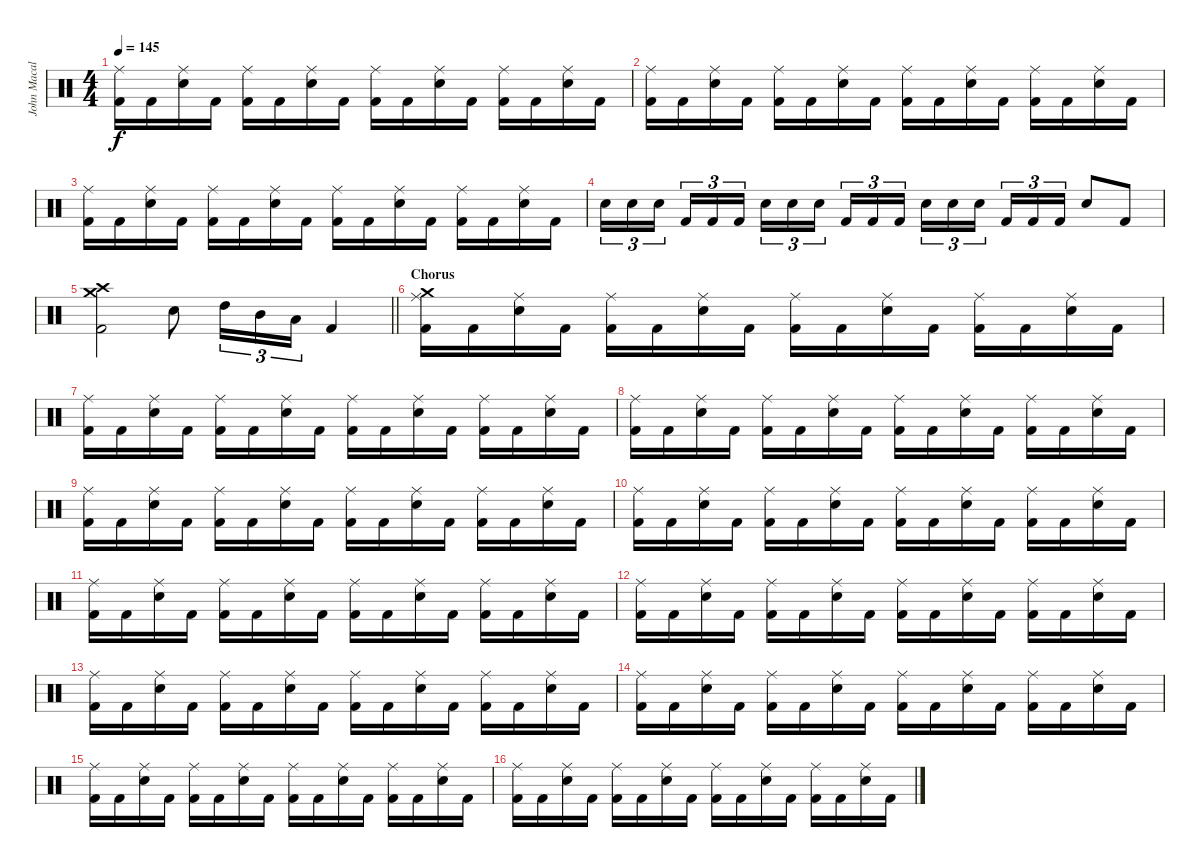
\track ("John Macaluso" "John Macal") {instrument percussion}
\staff {score}
\articulation defaults
\ts (4 4)
\tempo 145
\clef neutral
\ks c
("Ride (middle)" "Kick (hit) 2").16{dy f} "Kick (hit) 2".16 ("Ride (middle)" "Snare (hit) 2").16 "Kick (hit) 2".16 ("Ride (middle)" "Kick (hit) 2").16 "Kick (hit) 2".16 ("Ride (middle)" "Snare (hit) 2").16 "Kick (hit) 2".16 ("Ride (middle)" "Kick (hit) 2").16 "Kick (hit) 2".16 ("Ride (middle)" "Snare (hit) 2").16 "Kick (hit) 2".16 ("Ride (middle)" "Kick (hit) 2").16 "Kick (hit) 2".16 ("Ride (middle)" "Snare (hit) 2").16 "Kick (hit) 2".16 |
("Ride (middle)" "Kick (hit) 2").16 "Kick (hit) 2".16 ("Ride (middle)" "Snare (hit) 2").16 "Kick (hit) 2".16 ("Ride (middle)" "Kick (hit) 2").16 "Kick (hit) 2".16 ("Ride (middle)" "Snare (hit) 2").16 "Kick (hit) 2".16 ("Ride (middle)" "Kick (hit) 2").16 "Kick (hit) 2".16 ("Ride (middle)" "Snare (hit) 2").16 "Kick (hit) 2".16 ("Ride (middle)" "Kick (hit) 2").16 "Kick (hit) 2".16 ("Ride (middle)" "Snare (hit) 2").16 "Kick (hit) 2".16 |
("Ride (middle)" "Kick (hit) 2").16 "Kick (hit) 2".16 ("Ride (middle)" "Snare (hit) 2").16 "Kick (hit) 2".16 ("Ride (middle)" "Kick (hit) 2").16 "Kick (hit) 2".16 ("Ride (middle)" "Snare (hit) 2").16 "Kick (hit) 2".16 ("Ride (middle)" "Kick (hit) 2").16 "Kick (hit) 2".16 ("Ride (middle)" "Snare (hit) 2").16 "Kick (hit) 2".16 ("Ride (middle)" "Kick (hit) 2").16 "Kick (hit) 2".16 ("Ride (middle)" "Snare (hit) 2").16 "Kick (hit) 2".16 |
"Snare (hit) 2".16{tu (3 2)} "Snare (hit) 2".16{tu (3 2)} "Snare (hit) 2".16{tu (3 2) beam splitsecondary} "Kick (hit) 2".16{tu (3 2)} "Kick (hit) 2".16{tu (3 2)} "Kick (hit) 2".16{tu (3 2)} "Snare (hit) 2".16{tu (3 2)} "Snare (hit) 2".16{tu (3 2)} "Snare (hit) 2".16{tu (3 2) beam splitsecondary} "Kick (hit) 2".16{tu (3 2)} "Kick (hit) 2".16{tu (3 2)} "Kick (hit) 2".16{tu (3 2)} "Snare (hit) 2".16{tu (3 2)} "Snare (hit) 2".16{tu (3 2)} "Snare (hit) 2".16{tu (3 2) beam splitsecondary} "Kick (hit) 2".16{tu (3 2)} "Kick (hit) 2".16{tu (3 2)} "Kick (hit) 2".16{tu (3 2)} "Snare (hit) 2".8 "Kick (hit) 2".8 |
\barLineRight lightlight
("Crash high (hit)" "Crash medium (hit)" "Kick (hit) 2").2 "Snare (hit) 2".8 "High Tom (hit)".16{tu (3 2)} "Mid Tom (hit)".16{tu (3 2)} "Low Tom (hit)".16{tu (3 2)} "Kick (hit) 2".4 |
\section ("" "Chorus")
("Crash medium (hit)" "Ride (middle)" "Kick (hit) 2").16 "Kick (hit) 2".16 ("Ride (middle)" "Snare (hit) 2").16 "Kick (hit) 2".16 ("Ride (middle)" "Kick (hit) 2").16 "Kick (hit) 2".16 ("Ride (middle)" "Snare (hit) 2").16 "Kick (hit) 2".16 ("Ride (middle)" "Kick (hit) 2").16 "Kick (hit) 2".16 ("Ride (middle)" "Snare (hit) 2").16 "Kick (hit) 2".16 ("Ride (middle)" "Kick (hit) 2").16 "Kick (hit) 2".16 ("Ride (middle)" "Snare (hit) 2").16 "Kick (hit) 2".16 |
("Ride (middle)" "Kick (hit) 2").16 "Kick (hit) 2".16 ("Ride (middle)" "Snare (hit) 2").16 "Kick (hit) 2".16 ("Ride (middle)" "Kick (hit) 2").16 "Kick (hit) 2".16 ("Ride (middle)" "Snare (hit) 2").16 "Kick (hit) 2".16 ("Ride (middle)" "Kick (hit) 2").16 "Kick (hit) 2".16 ("Ride (middle)" "Snare (hit) 2").16 "Kick (hit) 2".16 ("Ride (middle)" "Kick (hit) 2").16 "Kick (hit) 2".16 ("Ride (middle)" "Snare (hit) 2").16 "Kick (hit) 2".16 |
("Ride (middle)" "Kick (hit) 2").16 "Kick (hit) 2".16 ("Ride (middle)" "Snare (hit) 2").16 "Kick (hit) 2".16 ("Ride (middle)" "Kick (hit) 2").16 "Kick (hit) 2".16 ("Ride (middle)" "Snare (hit) 2").16 "Kick (hit) 2".16 ("Ride (middle)" "Kick (hit) 2").16 "Kick (hit) 2".16 ("Ride (middle)" "Snare (hit) 2").16 "Kick (hit) 2".16 ("Ride (middle)" "Kick (hit) 2").16 "Kick (hit) 2".16 ("Ride (middle)" "Snare (hit) 2").16 "Kick (hit) 2".16 |
("Ride (middle)" "Kick (hit) 2").16 "Kick (hit) 2".16 ("Ride (middle)" "Snare (hit) 2").16 "Kick (hit) 2".16 ("Ride (middle)" "Kick (hit) 2").16 "Kick (hit) 2".16 ("Ride (middle)" "Snare (hit) 2").16 "Kick (hit) 2".16 ("Ride (middle)" "Kick (hit) 2").16 "Kick (hit) 2".16 ("Ride (middle)" "Snare (hit) 2").16 "Kick (hit) 2".16 ("Ride (middle)" "Kick (hit) 2").16 "Kick (hit) 2".16 ("Ride (middle)" "Snare (hit) 2").16 "Kick (hit) 2".16 |
("Ride (middle)" "Kick (hit) 2").16 "Kick (hit) 2".16 ("Ride (middle)" "Snare (hit) 2").16 "Kick (hit) 2".16 ("Ride (middle)" "Kick (hit) 2").16 "Kick (hit) 2".16 ("Ride (middle)" "Snare (hit) 2").16 "Kick (hit) 2".16 ("Ride (middle)" "Kick (hit) 2").16 "Kick (hit) 2".16 ("Ride (middle)" "Snare (hit) 2").16 "Kick (hit) 2".16 ("Ride (middle)" "Kick (hit) 2").16 "Kick (hit) 2".16 ("Ride (middle)" "Snare (hit) 2").16 "Kick (hit) 2".16 |
("Ride (middle)" "Kick (hit) 2").16 "Kick (hit) 2".16 ("Ride (middle)" "Snare (hit) 2").16 "Kick (hit) 2".16 ("Ride (middle)" "Kick (hit) 2").16 "Kick (hit) 2".16 ("Ride (middle)" "Snare (hit) 2").16 "Kick (hit) 2".16 ("Ride (middle)" "Kick (hit) 2").16 "Kick (hit) 2".16 ("Ride (middle)" "Snare (hit) 2").16 "Kick (hit) 2".16 ("Ride (middle)" "Kick (hit) 2").16 "Kick (hit) 2".16 ("Ride (middle)" "Snare (hit) 2").16 "Kick (hit) 2".16 |
("Ride (middle)" "Kick (hit) 2").16 "Kick (hit) 2".16 ("Ride (middle)" "Snare (hit) 2").16 "Kick (hit) 2".16 ("Ride (middle)" "Kick (hit) 2").16 "Kick (hit) 2".16 ("Ride (middle)" "Snare (hit) 2").16 "Kick (hit) 2".16 ("Ride (middle)" "Kick (hit) 2").16 "Kick (hit) 2".16 ("Ride (middle)" "Snare (hit) 2").16 "Kick (hit) 2".16 ("Ride (middle)" "Kick (hit) 2").16 "Kick (hit) 2".16 ("Ride (middle)" "Snare (hit) 2").16 "Kick (hit) 2".16 |
("Ride (middle)" "Kick (hit) 2").16 "Kick (hit) 2".16 ("Ride (middle)" "Snare (hit) 2").16 "Kick (hit) 2".16 ("Ride (middle)" "Kick (hit) 2").16 "Kick (hit) 2".16 ("Ride (middle)" "Snare (hit) 2").16 "Kick (hit) 2".16 ("Ride (middle)" "Kick (hit) 2").16 "Kick (hit) 2".16 ("Ride (middle)" "Snare (hit) 2").16 "Kick (hit) 2".16 ("Ride (middle)" "Kick (hit) 2").16 "Kick (hit) 2".16 ("Ride (middle)" "Snare (hit) 2").16 "Kick (hit) 2".16 |
("Ride (middle)" "Kick (hit) 2").16 "Kick (hit) 2".16 ("Ride (middle)" "Snare (hit) 2").16 "Kick (hit) 2".16 ("Ride (middle)" "Kick (hit) 2").16 "Kick (hit) 2".16 ("Ride (middle)" "Snare (hit) 2").16 "Kick (hit) 2".16 ("Ride (middle)" "Kick (hit) 2").16 "Kick (hit) 2".16 ("Ride (middle)" "Snare (hit) 2").16 "Kick (hit) 2".16 ("Ride (middle)" "Kick (hit) 2").16 "Kick (hit) 2".16 ("Ride (middle)" "Snare (hit) 2").16 "Kick (hit) 2".16 |
("Ride (middle)" "Kick (hit) 2").16 "Kick (hit) 2".16 ("Ride (middle)" "Snare (hit) 2").16 "Kick (hit) 2".16 ("Ride (middle)" "Kick (hit) 2").16 "Kick (hit) 2".16 ("Ride (middle)" "Snare (hit) 2").16 "Kick (hit) 2".16 ("Ride (middle)" "Kick (hit) 2").16 "Kick (hit) 2".16 ("Ride (middle)" "Snare (hit) 2").16 "Kick (hit) 2".16 ("Ride (middle)" "Kick (hit) 2").16 "Kick (hit) 2".16 ("Ride (middle)" "Snare (hit) 2").16 "Kick (hit) 2".16 |
("Ride (middle)" "Kick (hit) 2").16 "Kick (hit) 2".16 ("Ride (middle)" "Snare (hit) 2").16 "Kick (hit) 2".16 ("Ride (middle)" "Kick (hit) 2").16 "Kick (hit) 2".16 ("Ride (middle)" "Snare (hit) 2").16 "Kick (hit) 2".16 ("Ride (middle)" "Kick (hit) 2").16 "Kick (hit) 2".16 ("Ride (middle)" "Snare (hit) 2").16 "Kick (hit) 2".16 ("Ride (middle)" "Kick (hit) 2").16 "Kick (hit) 2".16 ("Ride (middle)" "Snare (hit) 2").16 "Kick (hit) 2".16
